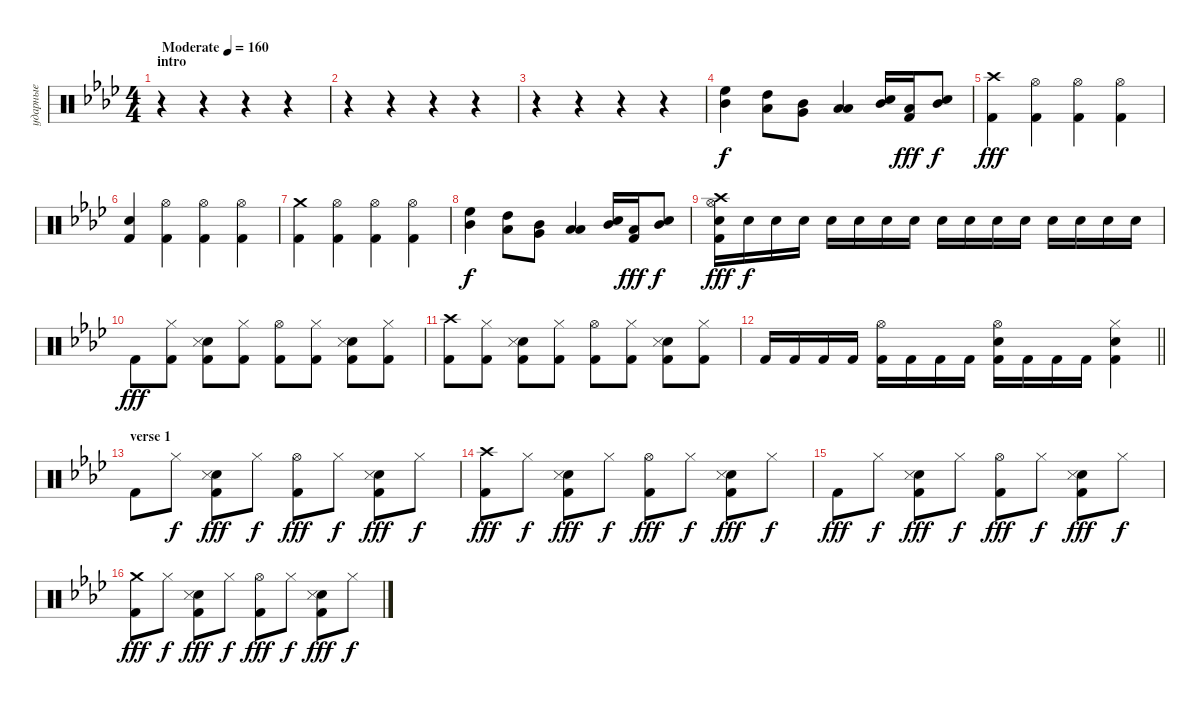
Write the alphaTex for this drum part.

\track ("ударные" "ударные") {instrument percussion}
\staff {score}
\articulation defaults
\ts (4 4)
\section ("" "intro")
\tempo (160 "Moderate")
\clef neutral
\ks fminor
r.4{dy f} r.4 r.4 r.4 |
r.4 r.4 r.4 r.4 |
r.4 r.4 r.4 r.4 |
("High Floor Tom (hit)" "Mid Tom (hit)").4 ("Low Tom (hit)" "High Tom (hit)").8 ("Very Low Tom (hit)" "Mid Tom (hit)").8 ("Low Tom (hit)" "Low Floor Tom (hit)").4 ("Mid Tom (hit)" "Electric Snare (hit)").16 ("Low Tom (hit)" "Kick (hit) 2").16{dy fff} ("Mid Tom (hit)" "Electric Snare (hit)").8{dy f} |
("Crash high (hit)" "Kick (hit) 2").4{dy fff} ("Hi-Hat (open)" "Kick (hit) 2").4 ("Hi-Hat (open)" "Kick (hit) 2").4 ("Hi-Hat (open)" "Kick (hit) 2").4 |
("Electric Snare (hit)" "Kick (hit) 2").4 ("Hi-Hat (open)" "Kick (hit) 2").4 ("Hi-Hat (open)" "Kick (hit) 2").4 ("Hi-Hat (open)" "Kick (hit) 2").4 |
("Crash medium (hit)" "Kick (hit) 2").4 ("Hi-Hat (open)" "Kick (hit) 2").4 ("Hi-Hat (open)" "Kick (hit) 2").4 ("Hi-Hat (open)" "Kick (hit) 2").4 |
("Mid Tom (hit)" "High Floor Tom (hit)").4{dy f} ("Low Tom (hit)" "High Tom (hit)").8 ("Very Low Tom (hit)" "Mid Tom (hit)").8 ("Low Floor Tom (hit)" "Low Tom (hit)").4 ("Mid Tom (hit)" "Electric Snare (hit)").16 ("Low Tom (hit)" "Kick (hit) 2").16{dy fff} ("Mid Tom (hit)" "Electric Snare (hit)").8{dy f} |
("Crash high (hit)" "Electric Snare (hit)" "Hi-Hat (open)" "Kick (hit) 2").16{dy fff} "Electric Snare (hit)".16{dy f} "Electric Snare (hit)".16 "Electric Snare (hit)".16 "Electric Snare (hit)".16 "Electric Snare (hit)".16 "Electric Snare (hit)".16 "Electric Snare (hit)".16 "Electric Snare (hit)".16 "Electric Snare (hit)".16 "Electric Snare (hit)".16 "Electric Snare (hit)".16 "Electric Snare (hit)".16 "Electric Snare (hit)".16 "Electric Snare (hit)".16 "Electric Snare (hit)".16 |
"Kick (hit) 2".8{dy fff} ("Kick (hit) 2" "Hi-Hat (closed)").8 ("Kick (hit) 2" "Electric Snare (hit)" "Snare (side stick) 3").8 ("Kick (hit) 2" "Hi-Hat (closed)").8 ("Kick (hit) 2" "Hi-Hat (open)").8 ("Kick (hit) 2" "Hi-Hat (closed)").8 ("Kick (hit) 2" "Electric Snare (hit)" "Snare (side stick) 3").8 ("Kick (hit) 2" "Hi-Hat (closed)").8 |
("Kick (hit) 2" "Crash high (hit)").8 ("Kick (hit) 2" "Hi-Hat (closed)").8 ("Kick (hit) 2" "Electric Snare (hit)" "Snare (side stick) 3").8 ("Kick (hit) 2" "Hi-Hat (closed)").8 ("Kick (hit) 2" "Hi-Hat (open)").8 ("Kick (hit) 2" "Hi-Hat (closed)").8 ("Kick (hit) 2" "Electric Snare (hit)" "Snare (side stick) 3").8 ("Kick (hit) 2" "Hi-Hat (closed)").8 |
\barLineRight lightlight "Kick (hit) 2".16 "Kick (hit) 2".16 "Kick (hit) 2".16 "Kick (hit) 2".16
("Hi-Hat (open)" "Kick (hit) 2").16 "Kick (hit) 2".16 "Kick (hit) 2".16 "Kick (hit) 2".16 ("Electric Snare (hit)" "Hi-Hat (open)" "Kick (hit) 2").16 "Kick (hit) 2".16 "Kick (hit) 2".16 "Kick (hit) 2".16 ("Electric Snare (hit)" "Hi-Hat (closed)" "Kick (hit) 2").4 |
\section ("" "verse 1")
"Kick (hit) 2".8 "Hi-Hat (closed)".8{dy f} ("Kick (hit) 2" "Electric Snare (hit)" "Snare (side stick) 3").8{dy fff} "Hi-Hat (closed)".8{dy f} ("Kick (hit) 2" "Hi-Hat (open)").8{dy fff} "Hi-Hat (closed)".8{dy f} ("Kick (hit) 2" "Electric Snare (hit)" "Snare (side stick) 3").8{dy fff} "Hi-Hat (closed)".8{dy f} |
("Kick (hit) 2" "Crash high (hit)").8{dy fff} "Hi-Hat (closed)".8{dy f} ("Kick (hit) 2" "Electric Snare (hit)" "Snare (side stick) 3").8{dy fff} "Hi-Hat (closed)".8{dy f} ("Kick (hit) 2" "Hi-Hat (open)").8{dy fff} "Hi-Hat (closed)".8{dy f} ("Kick (hit) 2" "Electric Snare (hit)" "Snare (side stick) 3").8{dy fff} "Hi-Hat (closed)".8{dy f} |
"Kick (hit) 2".8{dy fff} "Hi-Hat (closed)".8{dy f} ("Kick (hit) 2" "Electric Snare (hit)" "Snare (side stick) 3").8{dy fff} "Hi-Hat (closed)".8{dy f} ("Kick (hit) 2" "Hi-Hat (open)").8{dy fff} "Hi-Hat (closed)".8{dy f} ("Kick (hit) 2" "Electric Snare (hit)" "Snare (side stick) 3").8{dy fff} "Hi-Hat (closed)".8{dy f} |
("Kick (hit) 2" "Crash medium (hit)").8{dy fff} "Hi-Hat (closed)".8{dy f} ("Kick (hit) 2" "Electric Snare (hit)" "Snare (side stick) 3").8{dy fff} "Hi-Hat (closed)".8{dy f} ("Kick (hit) 2" "Hi-Hat (open)").8{dy fff} "Hi-Hat (closed)".8{dy f} ("Kick (hit) 2" "Electric Snare (hit)" "Snare (side stick) 3").8{dy fff} "Hi-Hat (closed)".8{dy f}
